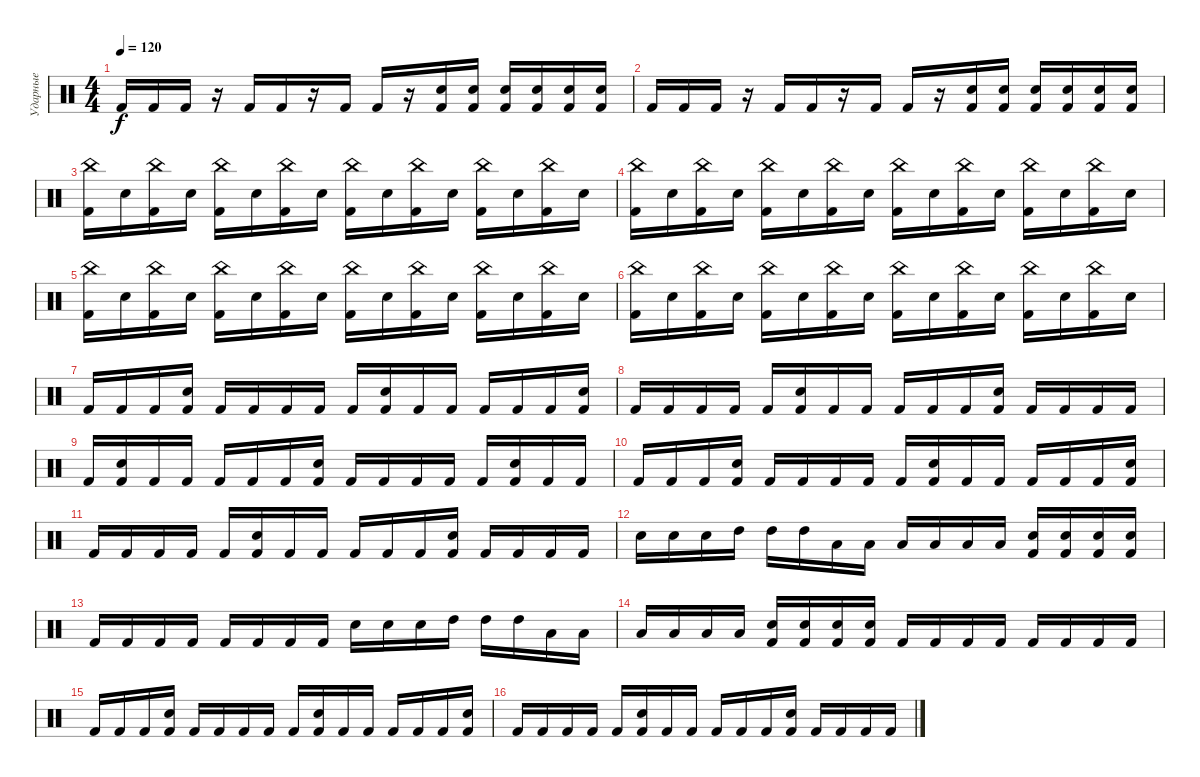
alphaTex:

\track ("Ударные" "Ударные") {instrument percussion}
\staff {score}
\articulation defaults
\ts (4 4)
\tempo 120
\clef neutral
\ks c "Kick (hit) 2".16{dy f} "Kick (hit) 2".16 "Kick (hit) 2".16
r.16 "Kick (hit) 2".16 "Kick (hit) 2".16 r.16 "Kick (hit) 2".16 "Kick (hit) 2".16 r.16 ("Snare (hit) 2" "Kick (hit) 2").16 ("Snare (hit) 2" "Kick (hit) 2").16 ("Snare (hit) 2" "Kick (hit) 2").16 ("Snare (hit) 2" "Kick (hit) 2").16 ("Snare (hit) 2" "Kick (hit) 2").16 ("Snare (hit) 2" "Kick (hit) 2").16 |
"Kick (hit) 2".16 "Kick (hit) 2".16 "Kick (hit) 2".16 r.16 "Kick (hit) 2".16 "Kick (hit) 2".16 r.16 "Kick (hit) 2".16 "Kick (hit) 2".16 r.16 ("Snare (hit) 2" "Kick (hit) 2").16 ("Snare (hit) 2" "Kick (hit) 2").16 ("Snare (hit) 2" "Kick (hit) 2").16 ("Snare (hit) 2" "Kick (hit) 2").16 ("Snare (hit) 2" "Kick (hit) 2").16 ("Snare (hit) 2" "Kick (hit) 2").16 |
("China (hit)" "Kick (hit) 2").16 "Snare (hit) 2".16 ("China (hit)" "Kick (hit) 2").16 "Snare (hit) 2".16 ("China (hit)" "Kick (hit) 2").16 "Snare (hit) 2".16 ("China (hit)" "Kick (hit) 2").16 "Snare (hit) 2".16 ("China (hit)" "Kick (hit) 2").16 "Snare (hit) 2".16 ("China (hit)" "Kick (hit) 2").16 "Snare (hit) 2".16 ("China (hit)" "Kick (hit) 2").16 "Snare (hit) 2".16 ("China (hit)" "Kick (hit) 2").16 "Snare (hit) 2".16 |
("China (hit)" "Kick (hit) 2").16 "Snare (hit) 2".16 ("China (hit)" "Kick (hit) 2").16 "Snare (hit) 2".16 ("China (hit)" "Kick (hit) 2").16 "Snare (hit) 2".16 ("China (hit)" "Kick (hit) 2").16 "Snare (hit) 2".16 ("China (hit)" "Kick (hit) 2").16 "Snare (hit) 2".16 ("China (hit)" "Kick (hit) 2").16 "Snare (hit) 2".16 ("China (hit)" "Kick (hit) 2").16 "Snare (hit) 2".16 ("China (hit)" "Kick (hit) 2").16 "Snare (hit) 2".16 |
("China (hit)" "Kick (hit) 2").16 "Snare (hit) 2".16 ("China (hit)" "Kick (hit) 2").16 "Snare (hit) 2".16 ("China (hit)" "Kick (hit) 2").16 "Snare (hit) 2".16 ("China (hit)" "Kick (hit) 2").16 "Snare (hit) 2".16 ("China (hit)" "Kick (hit) 2").16 "Snare (hit) 2".16 ("China (hit)" "Kick (hit) 2").16 "Snare (hit) 2".16 ("China (hit)" "Kick (hit) 2").16 "Snare (hit) 2".16 ("China (hit)" "Kick (hit) 2").16 "Snare (hit) 2".16 |
("China (hit)" "Kick (hit) 2").16 "Snare (hit) 2".16 ("China (hit)" "Kick (hit) 2").16 "Snare (hit) 2".16 ("China (hit)" "Kick (hit) 2").16 "Snare (hit) 2".16 ("China (hit)" "Kick (hit) 2").16 "Snare (hit) 2".16 ("China (hit)" "Kick (hit) 2").16 "Snare (hit) 2".16 ("China (hit)" "Kick (hit) 2").16 "Snare (hit) 2".16 ("China (hit)" "Kick (hit) 2").16 "Snare (hit) 2".16 ("China (hit)" "Kick (hit) 2").16 "Snare (hit) 2".16 |
"Kick (hit) 2".16 "Kick (hit) 2".16 "Kick (hit) 2".16 ("Snare (hit) 2" "Kick (hit) 2").16 "Kick (hit) 2".16 "Kick (hit) 2".16 "Kick (hit) 2".16 "Kick (hit) 2".16 "Kick (hit) 2".16 ("Snare (hit) 2" "Kick (hit) 2").16 "Kick (hit) 2".16 "Kick (hit) 2".16 "Kick (hit) 2".16 "Kick (hit) 2".16 "Kick (hit) 2".16 ("Snare (hit) 2" "Kick (hit) 2").16 |
"Kick (hit) 2".16 "Kick (hit) 2".16 "Kick (hit) 2".16 "Kick (hit) 2".16 "Kick (hit) 2".16 ("Snare (hit) 2" "Kick (hit) 2").16 "Kick (hit) 2".16 "Kick (hit) 2".16 "Kick (hit) 2".16 "Kick (hit) 2".16 "Kick (hit) 2".16 ("Snare (hit) 2" "Kick (hit) 2").16 "Kick (hit) 2".16 "Kick (hit) 2".16 "Kick (hit) 2".16 "Kick (hit) 2".16 |
"Kick (hit) 2".16 ("Snare (hit) 2" "Kick (hit) 2").16 "Kick (hit) 2".16 "Kick (hit) 2".16 "Kick (hit) 2".16 "Kick (hit) 2".16 "Kick (hit) 2".16 ("Snare (hit) 2" "Kick (hit) 2").16 "Kick (hit) 2".16 "Kick (hit) 2".16 "Kick (hit) 2".16 "Kick (hit) 2".16 "Kick (hit) 2".16 ("Snare (hit) 2" "Kick (hit) 2").16 "Kick (hit) 2".16 "Kick (hit) 2".16 |
"Kick (hit) 2".16 "Kick (hit) 2".16 "Kick (hit) 2".16 ("Snare (hit) 2" "Kick (hit) 2").16 "Kick (hit) 2".16 "Kick (hit) 2".16 "Kick (hit) 2".16 "Kick (hit) 2".16 "Kick (hit) 2".16 ("Snare (hit) 2" "Kick (hit) 2").16 "Kick (hit) 2".16 "Kick (hit) 2".16 "Kick (hit) 2".16 "Kick (hit) 2".16 "Kick (hit) 2".16 ("Snare (hit) 2" "Kick (hit) 2").16 |
"Kick (hit) 2".16 "Kick (hit) 2".16 "Kick (hit) 2".16 "Kick (hit) 2".16 "Kick (hit) 2".16 ("Snare (hit) 2" "Kick (hit) 2").16 "Kick (hit) 2".16 "Kick (hit) 2".16 "Kick (hit) 2".16 "Kick (hit) 2".16 "Kick (hit) 2".16 ("Snare (hit) 2" "Kick (hit) 2").16 "Kick (hit) 2".16 "Kick (hit) 2".16 "Kick (hit) 2".16 "Kick (hit) 2".16 |
"Snare (hit) 2".16 "Snare (hit) 2".16 "Snare (hit) 2".16 "High Tom (hit)".16 "High Tom (hit)".16 "High Tom (hit)".16 "Low Tom (hit)".16 "Low Tom (hit)".16 "Low Tom (hit)".16 "Low Floor Tom (hit)".16 "Low Floor Tom (hit)".16 "Low Floor Tom (hit)".16 ("Snare (hit) 2" "Kick (hit) 2").16 ("Snare (hit) 2" "Kick (hit) 2").16 ("Snare (hit) 2" "Kick (hit) 2").16 ("Snare (hit) 2" "Kick (hit) 2").16 |
"Kick (hit) 2".16 "Kick (hit) 2".16 "Kick (hit) 2".16 "Kick (hit) 2".16 "Kick (hit) 2".16 "Kick (hit) 2".16 "Kick (hit) 2".16 "Kick (hit) 2".16 "Snare (hit) 2".16 "Snare (hit) 2".16 "Snare (hit) 2".16 "High Tom (hit)".16 "High Tom (hit)".16 "High Tom (hit)".16 "Low Tom (hit)".16 "Low Tom (hit)".16 |
"Low Tom (hit)".16 "Low Floor Tom (hit)".16 "Low Floor Tom (hit)".16 "Low Floor Tom (hit)".16 ("Snare (hit) 2" "Kick (hit) 2").16 ("Snare (hit) 2" "Kick (hit) 2").16 ("Snare (hit) 2" "Kick (hit) 2").16 ("Snare (hit) 2" "Kick (hit) 2").16 "Kick (hit) 2".16 "Kick (hit) 2".16 "Kick (hit) 2".16 "Kick (hit) 2".16 "Kick (hit) 2".16 "Kick (hit) 2".16 "Kick (hit) 2".16 "Kick (hit) 2".16 |
"Kick (hit) 2".16 "Kick (hit) 2".16 "Kick (hit) 2".16 ("Snare (hit) 2" "Kick (hit) 2").16 "Kick (hit) 2".16 "Kick (hit) 2".16 "Kick (hit) 2".16 "Kick (hit) 2".16 "Kick (hit) 2".16 ("Snare (hit) 2" "Kick (hit) 2").16 "Kick (hit) 2".16 "Kick (hit) 2".16 "Kick (hit) 2".16 "Kick (hit) 2".16 "Kick (hit) 2".16 ("Snare (hit) 2" "Kick (hit) 2").16 |
"Kick (hit) 2".16 "Kick (hit) 2".16 "Kick (hit) 2".16 "Kick (hit) 2".16 "Kick (hit) 2".16 ("Snare (hit) 2" "Kick (hit) 2").16 "Kick (hit) 2".16 "Kick (hit) 2".16 "Kick (hit) 2".16 "Kick (hit) 2".16 "Kick (hit) 2".16 ("Snare (hit) 2" "Kick (hit) 2").16 "Kick (hit) 2".16 "Kick (hit) 2".16 "Kick (hit) 2".16 "Kick (hit) 2".16
